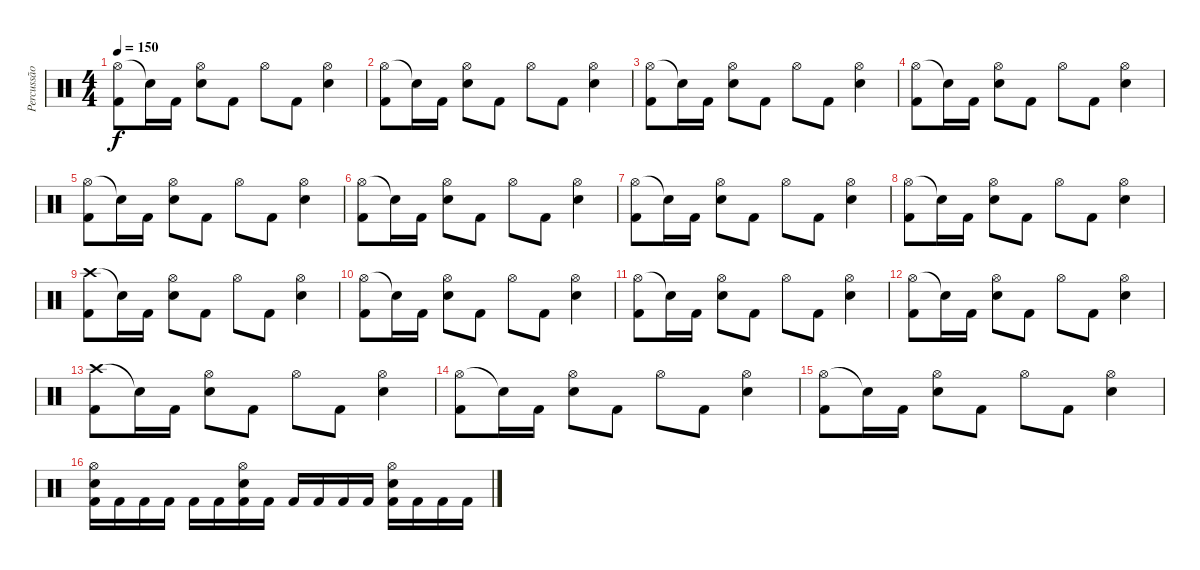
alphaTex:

\track ("Percussão" "Percussão") {instrument percussion}
\staff {score}
\articulation defaults
\ts (4 4)
\tempo 150
\clef neutral
\ks c
("Hi-Hat (open)" "Kick (hit) 2").8{dy f} "Snare (hit)"{t}.16 "Kick (hit) 2".16 ("Hi-Hat (open)" "Electric Snare (hit)").8 "Kick (hit) 2".8 "Hi-Hat (open)".8 "Kick (hit) 2".8 ("Hi-Hat (open)" "Electric Snare (hit)").4 |
("Hi-Hat (open)" "Kick (hit) 2").8 "Snare (hit)"{t}.16 "Kick (hit) 2".16 ("Hi-Hat (open)" "Electric Snare (hit)").8 "Kick (hit) 2".8 "Hi-Hat (open)".8 "Kick (hit) 2".8 ("Hi-Hat (open)" "Electric Snare (hit)").4 |
("Hi-Hat (open)" "Kick (hit) 2").8 "Snare (hit)"{t}.16 "Kick (hit) 2".16 ("Hi-Hat (open)" "Electric Snare (hit)").8 "Kick (hit) 2".8 "Hi-Hat (open)".8 "Kick (hit) 2".8 ("Hi-Hat (open)" "Electric Snare (hit)").4 |
("Hi-Hat (open)" "Kick (hit) 2").8 "Snare (hit)"{t}.16 "Kick (hit) 2".16 ("Hi-Hat (open)" "Electric Snare (hit)").8 "Kick (hit) 2".8 "Hi-Hat (open)".8 "Kick (hit) 2".8 ("Hi-Hat (open)" "Electric Snare (hit)").4 |
("Hi-Hat (open)" "Kick (hit) 2").8 "Snare (hit)"{t}.16 "Kick (hit) 2".16 ("Hi-Hat (open)" "Electric Snare (hit)").8 "Kick (hit) 2".8 "Hi-Hat (open)".8 "Kick (hit) 2".8 ("Hi-Hat (open)" "Electric Snare (hit)").4 |
("Hi-Hat (open)" "Kick (hit) 2").8 "Snare (hit)"{t}.16 "Kick (hit) 2".16 ("Hi-Hat (open)" "Electric Snare (hit)").8 "Kick (hit) 2".8 "Hi-Hat (open)".8 "Kick (hit) 2".8 ("Hi-Hat (open)" "Electric Snare (hit)").4 |
("Hi-Hat (open)" "Kick (hit) 2").8 "Snare (hit)"{t}.16 "Kick (hit) 2".16 ("Hi-Hat (open)" "Electric Snare (hit)").8 "Kick (hit) 2".8 "Hi-Hat (open)".8 "Kick (hit) 2".8 ("Hi-Hat (open)" "Electric Snare (hit)").4 |
("Hi-Hat (open)" "Kick (hit) 2").8 "Snare (hit)"{t}.16 "Kick (hit) 2".16 ("Hi-Hat (open)" "Electric Snare (hit)").8 "Kick (hit) 2".8 "Hi-Hat (open)".8 "Kick (hit) 2".8 ("Hi-Hat (open)" "Electric Snare (hit)").4 |
("Crash high (hit)" "Kick (hit) 2").8 "Snare (hit)"{t}.16 "Kick (hit) 2".16 ("Hi-Hat (open)" "Electric Snare (hit)").8 "Kick (hit) 2".8 "Hi-Hat (open)".8 "Kick (hit) 2".8 ("Hi-Hat (open)" "Electric Snare (hit)").4 |
("Hi-Hat (open)" "Kick (hit) 2").8 "Snare (hit)"{t}.16 "Kick (hit) 2".16 ("Hi-Hat (open)" "Electric Snare (hit)").8 "Kick (hit) 2".8 "Hi-Hat (open)".8 "Kick (hit) 2".8 ("Hi-Hat (open)" "Electric Snare (hit)").4 |
("Hi-Hat (open)" "Kick (hit) 2").8 "Snare (hit)"{t}.16 "Kick (hit) 2".16 ("Hi-Hat (open)" "Electric Snare (hit)").8 "Kick (hit) 2".8 "Hi-Hat (open)".8 "Kick (hit) 2".8 ("Hi-Hat (open)" "Electric Snare (hit)").4 |
("Hi-Hat (open)" "Kick (hit) 2").8 "Snare (hit)"{t}.16 "Kick (hit) 2".16 ("Hi-Hat (open)" "Electric Snare (hit)").8 "Kick (hit) 2".8 "Hi-Hat (open)".8 "Kick (hit) 2".8 ("Hi-Hat (open)" "Electric Snare (hit)").4 |
("Crash high (hit)" "Kick (hit) 2").8 "Snare (hit)"{t}.16 "Kick (hit) 2".16 ("Hi-Hat (open)" "Electric Snare (hit)").8 "Kick (hit) 2".8 "Hi-Hat (open)".8 "Kick (hit) 2".8 ("Hi-Hat (open)" "Electric Snare (hit)").4 |
("Hi-Hat (open)" "Kick (hit) 2").8 "Snare (hit)"{t}.16 "Kick (hit) 2".16 ("Hi-Hat (open)" "Electric Snare (hit)").8 "Kick (hit) 2".8 "Hi-Hat (open)".8 "Kick (hit) 2".8 ("Hi-Hat (open)" "Electric Snare (hit)").4 |
("Hi-Hat (open)" "Kick (hit) 2").8 "Snare (hit)"{t}.16 "Kick (hit) 2".16 ("Hi-Hat (open)" "Electric Snare (hit)").8 "Kick (hit) 2".8 "Hi-Hat (open)".8 "Kick (hit) 2".8 ("Hi-Hat (open)" "Electric Snare (hit)").4 |
("Hi-Hat (open)" "Electric Snare (hit)" "Kick (hit) 2").16 "Kick (hit) 2".16 "Kick (hit) 2".16 "Kick (hit) 2".16 "Kick (hit) 2".16 "Kick (hit) 2".16 ("Hi-Hat (open)" "Electric Snare (hit)" "Kick (hit) 2").16 "Kick (hit) 2".16 "Kick (hit) 2".16 "Kick (hit) 2".16 "Kick (hit) 2".16 "Kick (hit) 2".16 ("Hi-Hat (open)" "Electric Snare (hit)" "Kick (hit) 2").16 "Kick (hit) 2".16 "Kick (hit) 2".16 "Kick (hit) 2".16
